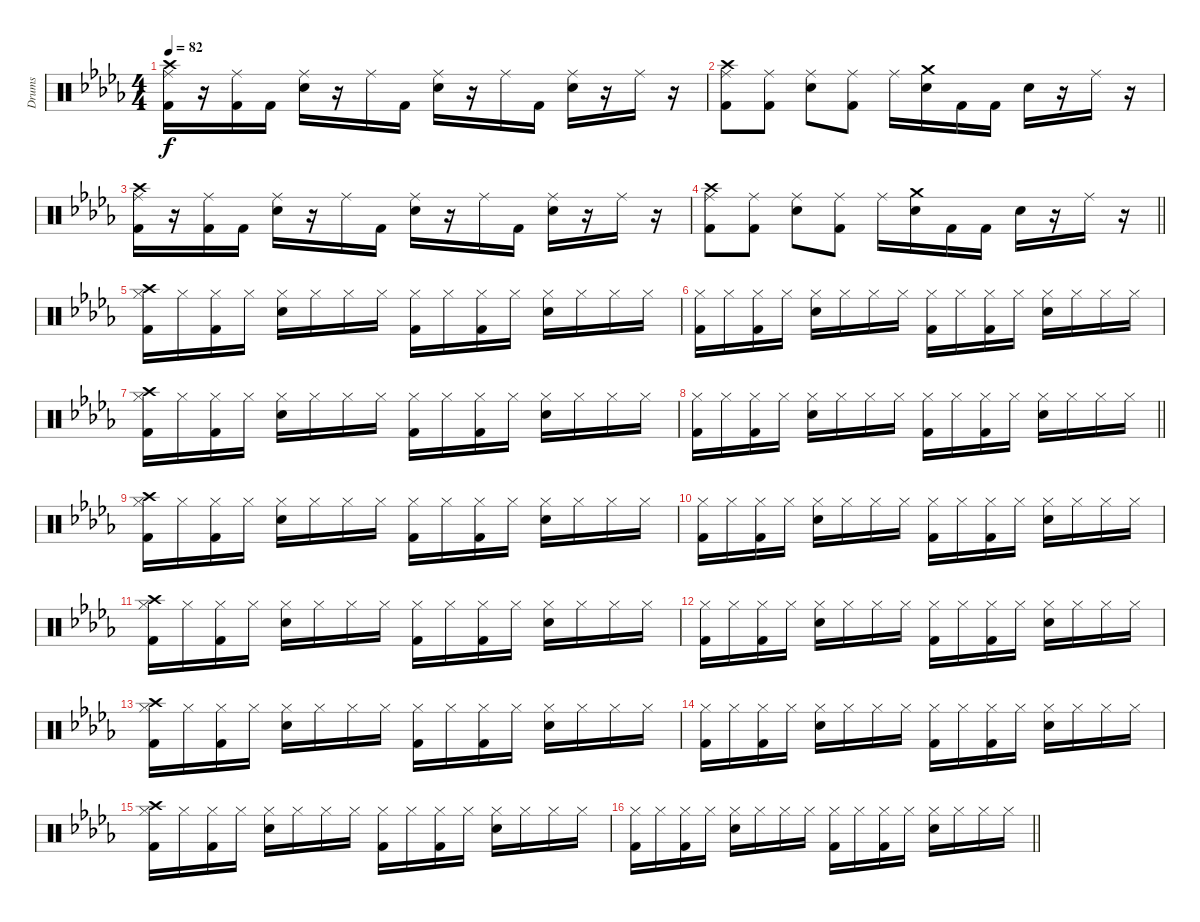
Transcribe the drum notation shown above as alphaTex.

\track ("Drums" "Drums") {instrument percussion}
\staff {score}
\articulation defaults
\ts (4 4)
\tempo 82
\clef neutral
\ks db
("Crash high (hit)" "Ride (middle)" "Kick (hit) 2").16{dy f} r.16 ("Ride (middle)" "Kick (hit) 2").16 "Kick (hit) 2".16 ("Ride (middle)" "Electric Snare (hit)").16 r.16 "Ride (middle)".16 "Kick (hit) 2".16 ("Ride (middle)" "Electric Snare (hit)").16 r.16 "Ride (middle)".16 "Kick (hit) 2".16 ("Ride (middle)" "Electric Snare (hit)").16 r.16 "Ride (middle)".16 r.16 |
("Crash high (hit)" "Ride (middle)" "Kick (hit) 2").8 ("Ride (middle)" "Kick (hit) 2").8 ("Ride (middle)" "Electric Snare (hit)").8 ("Ride (middle)" "Kick (hit) 2").8 "Ride (middle)".16 ("Crash medium (hit)" "Electric Snare (hit)").16 "Kick (hit) 2".16 "Kick (hit) 2".16 "Electric Snare (hit)".16 r.16 "Ride (middle)".16 r.16 |
("Crash high (hit)" "Ride (middle)" "Kick (hit) 2").16 r.16 ("Ride (middle)" "Kick (hit) 2").16 "Kick (hit) 2".16 ("Ride (middle)" "Electric Snare (hit)").16 r.16 "Ride (middle)".16 "Kick (hit) 2".16 ("Ride (middle)" "Electric Snare (hit)").16 r.16 "Ride (middle)".16 "Kick (hit) 2".16 ("Ride (middle)" "Electric Snare (hit)").16 r.16 "Ride (middle)".16 r.16 |
\barLineRight lightlight
("Crash high (hit)" "Ride (middle)" "Kick (hit) 2").8 ("Ride (middle)" "Kick (hit) 2").8 ("Ride (middle)" "Electric Snare (hit)").8 ("Ride (middle)" "Kick (hit) 2").8 "Ride (middle)".16 ("Crash medium (hit)" "Electric Snare (hit)").16 "Kick (hit) 2".16 "Kick (hit) 2".16 "Electric Snare (hit)".16 r.16 "Ride (middle)".16 r.16 |
\section ("" "")
("Crash high (hit)" "Hi-Hat (closed)" "Kick (hit) 2").16 "Hi-Hat (closed)".16 ("Hi-Hat (closed)" "Kick (hit) 2").16 "Hi-Hat (closed)".16 ("Hi-Hat (closed)" "Electric Snare (hit)").16 "Hi-Hat (closed)".16 "Hi-Hat (closed)".16 "Hi-Hat (closed)".16 ("Hi-Hat (closed)" "Kick (hit) 2").16 "Hi-Hat (closed)".16 ("Hi-Hat (closed)" "Kick (hit) 2").16 "Hi-Hat (closed)".16 ("Hi-Hat (closed)" "Electric Snare (hit)").16 "Hi-Hat (closed)".16 "Hi-Hat (closed)".16 "Hi-Hat (closed)".16 |
("Hi-Hat (closed)" "Kick (hit) 2").16 "Hi-Hat (closed)".16 ("Hi-Hat (closed)" "Kick (hit) 2").16 "Hi-Hat (closed)".16 ("Hi-Hat (closed)" "Electric Snare (hit)").16 "Hi-Hat (closed)".16 "Hi-Hat (closed)".16 "Hi-Hat (closed)".16 ("Hi-Hat (closed)" "Kick (hit) 2").16 "Hi-Hat (closed)".16 ("Hi-Hat (closed)" "Kick (hit) 2").16 "Hi-Hat (closed)".16 ("Hi-Hat (closed)" "Electric Snare (hit)").16 "Hi-Hat (closed)".16 "Hi-Hat (closed)".16 "Hi-Hat (closed)".16 |
("Crash high (hit)" "Hi-Hat (closed)" "Kick (hit) 2").16 "Hi-Hat (closed)".16 ("Hi-Hat (closed)" "Kick (hit) 2").16 "Hi-Hat (closed)".16 ("Hi-Hat (closed)" "Electric Snare (hit)").16 "Hi-Hat (closed)".16 "Hi-Hat (closed)".16 "Hi-Hat (closed)".16 ("Hi-Hat (closed)" "Kick (hit) 2").16 "Hi-Hat (closed)".16 ("Hi-Hat (closed)" "Kick (hit) 2").16 "Hi-Hat (closed)".16 ("Hi-Hat (closed)" "Electric Snare (hit)").16 "Hi-Hat (closed)".16 "Hi-Hat (closed)".16 "Hi-Hat (closed)".16 |
\barLineRight lightlight
("Hi-Hat (closed)" "Kick (hit) 2").16 "Hi-Hat (closed)".16 ("Hi-Hat (closed)" "Kick (hit) 2").16 "Hi-Hat (closed)".16 ("Hi-Hat (closed)" "Electric Snare (hit)").16 "Hi-Hat (closed)".16 "Hi-Hat (closed)".16 "Hi-Hat (closed)".16 ("Hi-Hat (closed)" "Kick (hit) 2").16 "Hi-Hat (closed)".16 ("Hi-Hat (closed)" "Kick (hit) 2").16 "Hi-Hat (closed)".16 ("Hi-Hat (closed)" "Electric Snare (hit)").16 "Hi-Hat (closed)".16 "Hi-Hat (closed)".16 "Hi-Hat (closed)".16 |
\section ("" "")
("Crash high (hit)" "Hi-Hat (closed)" "Kick (hit) 2").16 "Hi-Hat (closed)".16 ("Hi-Hat (closed)" "Kick (hit) 2").16 "Hi-Hat (closed)".16 ("Hi-Hat (closed)" "Electric Snare (hit)").16 "Hi-Hat (closed)".16 "Hi-Hat (closed)".16 "Hi-Hat (closed)".16 ("Hi-Hat (closed)" "Kick (hit) 2").16 "Hi-Hat (closed)".16 ("Hi-Hat (closed)" "Kick (hit) 2").16 "Hi-Hat (closed)".16 ("Hi-Hat (closed)" "Electric Snare (hit)").16 "Hi-Hat (closed)".16 "Hi-Hat (closed)".16 "Hi-Hat (closed)".16 |
("Hi-Hat (closed)" "Kick (hit) 2").16 "Hi-Hat (closed)".16 ("Hi-Hat (closed)" "Kick (hit) 2").16 "Hi-Hat (closed)".16 ("Hi-Hat (closed)" "Electric Snare (hit)").16 "Hi-Hat (closed)".16 "Hi-Hat (closed)".16 "Hi-Hat (closed)".16 ("Hi-Hat (closed)" "Kick (hit) 2").16 "Hi-Hat (closed)".16 ("Hi-Hat (closed)" "Kick (hit) 2").16 "Hi-Hat (closed)".16 ("Hi-Hat (closed)" "Electric Snare (hit)").16 "Hi-Hat (closed)".16 "Hi-Hat (closed)".16 "Hi-Hat (closed)".16 |
("Crash high (hit)" "Hi-Hat (closed)" "Kick (hit) 2").16 "Hi-Hat (closed)".16 ("Hi-Hat (closed)" "Kick (hit) 2").16 "Hi-Hat (closed)".16 ("Hi-Hat (closed)" "Electric Snare (hit)").16 "Hi-Hat (closed)".16 "Hi-Hat (closed)".16 "Hi-Hat (closed)".16 ("Hi-Hat (closed)" "Kick (hit) 2").16 "Hi-Hat (closed)".16 ("Hi-Hat (closed)" "Kick (hit) 2").16 "Hi-Hat (closed)".16 ("Hi-Hat (closed)" "Electric Snare (hit)").16 "Hi-Hat (closed)".16 "Hi-Hat (closed)".16 "Hi-Hat (closed)".16 |
("Hi-Hat (closed)" "Kick (hit) 2").16 "Hi-Hat (closed)".16 ("Hi-Hat (closed)" "Kick (hit) 2").16 "Hi-Hat (closed)".16 ("Hi-Hat (closed)" "Electric Snare (hit)").16 "Hi-Hat (closed)".16 "Hi-Hat (closed)".16 "Hi-Hat (closed)".16 ("Hi-Hat (closed)" "Kick (hit) 2").16 "Hi-Hat (closed)".16 ("Hi-Hat (closed)" "Kick (hit) 2").16 "Hi-Hat (closed)".16 ("Hi-Hat (closed)" "Electric Snare (hit)").16 "Hi-Hat (closed)".16 "Hi-Hat (closed)".16 "Hi-Hat (closed)".16 |
("Crash high (hit)" "Hi-Hat (closed)" "Kick (hit) 2").16 "Hi-Hat (closed)".16 ("Hi-Hat (closed)" "Kick (hit) 2").16 "Hi-Hat (closed)".16 ("Hi-Hat (closed)" "Electric Snare (hit)").16 "Hi-Hat (closed)".16 "Hi-Hat (closed)".16 "Hi-Hat (closed)".16 ("Hi-Hat (closed)" "Kick (hit) 2").16 "Hi-Hat (closed)".16 ("Hi-Hat (closed)" "Kick (hit) 2").16 "Hi-Hat (closed)".16 ("Hi-Hat (closed)" "Electric Snare (hit)").16 "Hi-Hat (closed)".16 "Hi-Hat (closed)".16 "Hi-Hat (closed)".16 |
("Hi-Hat (closed)" "Kick (hit) 2").16 "Hi-Hat (closed)".16 ("Hi-Hat (closed)" "Kick (hit) 2").16 "Hi-Hat (closed)".16 ("Hi-Hat (closed)" "Electric Snare (hit)").16 "Hi-Hat (closed)".16 "Hi-Hat (closed)".16 "Hi-Hat (closed)".16 ("Hi-Hat (closed)" "Kick (hit) 2").16 "Hi-Hat (closed)".16 ("Hi-Hat (closed)" "Kick (hit) 2").16 "Hi-Hat (closed)".16 ("Hi-Hat (closed)" "Electric Snare (hit)").16 "Hi-Hat (closed)".16 "Hi-Hat (closed)".16 "Hi-Hat (closed)".16 |
("Crash high (hit)" "Hi-Hat (closed)" "Kick (hit) 2").16 "Hi-Hat (closed)".16 ("Hi-Hat (closed)" "Kick (hit) 2").16 "Hi-Hat (closed)".16 ("Hi-Hat (closed)" "Electric Snare (hit)").16 "Hi-Hat (closed)".16 "Hi-Hat (closed)".16 "Hi-Hat (closed)".16 ("Hi-Hat (closed)" "Kick (hit) 2").16 "Hi-Hat (closed)".16 ("Hi-Hat (closed)" "Kick (hit) 2").16 "Hi-Hat (closed)".16 ("Hi-Hat (closed)" "Electric Snare (hit)").16 "Hi-Hat (closed)".16 "Hi-Hat (closed)".16 "Hi-Hat (closed)".16 |
\barLineRight lightlight
("Hi-Hat (closed)" "Kick (hit) 2").16 "Hi-Hat (closed)".16 ("Hi-Hat (closed)" "Kick (hit) 2").16 "Hi-Hat (closed)".16 ("Hi-Hat (closed)" "Electric Snare (hit)").16 "Hi-Hat (closed)".16 "Hi-Hat (closed)".16 "Hi-Hat (closed)".16 ("Hi-Hat (closed)" "Kick (hit) 2").16 "Hi-Hat (closed)".16 ("Hi-Hat (closed)" "Kick (hit) 2").16 "Hi-Hat (closed)".16 ("Hi-Hat (closed)" "Electric Snare (hit)").16 "Hi-Hat (closed)".16 "Hi-Hat (closed)".16 "Hi-Hat (closed)".16
